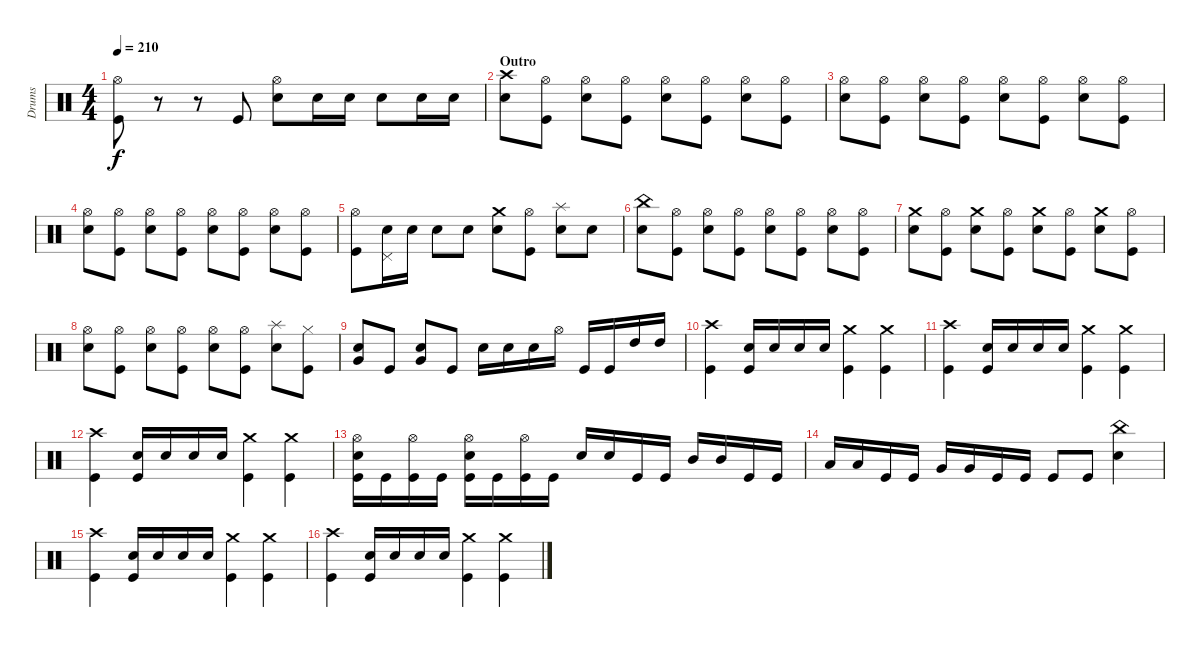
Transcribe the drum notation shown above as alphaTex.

\track ("Drums" "Drums") {instrument percussion}
\staff {score}
\articulation defaults
\ts (4 4)
\tempo 210
\clef neutral
\ks c
("Hi-Hat (open)" "Kick (hit)").8{dy f} r.8 r.8 "Kick (hit)".8 ("Hi-Hat (open)" "Electric Snare (hit)").8 "Electric Snare (hit)".16 "Electric Snare (hit)".16 "Electric Snare (hit)".8 "Electric Snare (hit)".16 "Electric Snare (hit)".16 |
\section ("" "Outro")
("Crash high (hit)" "Electric Snare (hit)").8 ("Hi-Hat (open)" "Kick (hit)").8 ("Hi-Hat (open)" "Electric Snare (hit)").8 ("Hi-Hat (open)" "Kick (hit)").8 ("Hi-Hat (open)" "Electric Snare (hit)").8 ("Hi-Hat (open)" "Kick (hit)").8 ("Hi-Hat (open)" "Electric Snare (hit)").8 ("Hi-Hat (open)" "Kick (hit)").8 |
("Hi-Hat (open)" "Electric Snare (hit)").8 ("Hi-Hat (open)" "Kick (hit)").8 ("Hi-Hat (open)" "Electric Snare (hit)").8 ("Hi-Hat (open)" "Kick (hit)").8 ("Hi-Hat (open)" "Electric Snare (hit)").8 ("Hi-Hat (open)" "Kick (hit)").8 ("Hi-Hat (open)" "Electric Snare (hit)").8 ("Hi-Hat (open)" "Kick (hit)").8 |
("Hi-Hat (open)" "Electric Snare (hit)").8 ("Hi-Hat (open)" "Kick (hit)").8 ("Hi-Hat (open)" "Electric Snare (hit)").8 ("Hi-Hat (open)" "Kick (hit)").8 ("Hi-Hat (open)" "Electric Snare (hit)").8 ("Hi-Hat (open)" "Kick (hit)").8 ("Hi-Hat (open)" "Electric Snare (hit)").8 ("Hi-Hat (open)" "Kick (hit)").8 |
("Hi-Hat (open)" "Kick (hit)").8 ("Pedal Hi-Hat (hit)" "Electric Snare (hit)").16 "Electric Snare (hit)".16 "Electric Snare (hit)".8 "Electric Snare (hit)".8 ("Crash medium (hit)" "Electric Snare (hit)").8 ("Hi-Hat (open)" "Kick (hit)").8 ("Splash (hit)" "Electric Snare (hit)").8 "Electric Snare (hit)".8 |
("China (hit)" "Electric Snare (hit)").8 ("Hi-Hat (open)" "Kick (hit)").8 ("Hi-Hat (open)" "Electric Snare (hit)").8 ("Hi-Hat (open)" "Kick (hit)").8 ("Hi-Hat (open)" "Electric Snare (hit)").8 ("Hi-Hat (open)" "Kick (hit)").8 ("Hi-Hat (open)" "Electric Snare (hit)").8 ("Hi-Hat (open)" "Kick (hit)").8 |
("Crash medium (hit)" "Electric Snare (hit)").8 ("Hi-Hat (open)" "Kick (hit)").8 ("Crash medium (hit)" "Electric Snare (hit)").8 ("Hi-Hat (open)" "Kick (hit)").8 ("Crash medium (hit)" "Electric Snare (hit)").8 ("Hi-Hat (open)" "Kick (hit)").8 ("Crash medium (hit)" "Electric Snare (hit)").8 ("Hi-Hat (open)" "Kick (hit)").8 |
("Hi-Hat (open)" "Electric Snare (hit)").8 ("Hi-Hat (open)" "Kick (hit)").8 ("Hi-Hat (open)" "Electric Snare (hit)").8 ("Hi-Hat (open)" "Kick (hit)").8 ("Hi-Hat (open)" "Electric Snare (hit)").8 ("Hi-Hat (open)" "Kick (hit)").8 ("Splash (hit)" "Electric Snare (hit)").8 ("Hi-Hat (closed)" "Kick (hit)").8 |
("Very Low Tom (hit)" "Electric Snare (hit)").8 "Kick (hit)".8 ("Very Low Tom (hit)" "Electric Snare (hit)").8 "Kick (hit)".8 "Electric Snare (hit)".16 "Electric Snare (hit)".16 "Electric Snare (hit)".16 "Hi-Hat (open)".16 "Kick (hit)".16 "Kick (hit)".16 "High Tom (hit)".16 "High Tom (hit)".16 |
("Crash high (hit)" "Kick (hit)").4 ("Electric Snare (hit)" "Kick (hit)").16 "Electric Snare (hit)".16 "Electric Snare (hit)".16 "Electric Snare (hit)".16 ("Crash medium (hit)" "Kick (hit)").4 ("Crash medium (hit)" "Kick (hit)").4 |
("Crash high (hit)" "Kick (hit)").4 ("Electric Snare (hit)" "Kick (hit)").16 "Electric Snare (hit)".16 "Electric Snare (hit)".16 "Electric Snare (hit)".16 ("Crash medium (hit)" "Kick (hit)").4 ("Crash medium (hit)" "Kick (hit)").4 |
("Crash high (hit)" "Kick (hit)").4 ("Electric Snare (hit)" "Kick (hit)").16 "Electric Snare (hit)".16 "Electric Snare (hit)".16 "Electric Snare (hit)".16 ("Crash medium (hit)" "Kick (hit)").4 ("Crash medium (hit)" "Kick (hit)").4 |
("Hi-Hat (open)" "Electric Snare (hit)" "Kick (hit)").16 "Kick (hit)".16 ("Hi-Hat (open)" "Kick (hit)").16 "Kick (hit)".16 ("Hi-Hat (open)" "Electric Snare (hit)" "Kick (hit)").16 "Kick (hit)".16 ("Hi-Hat (open)" "Kick (hit)").16 "Kick (hit)".16 "Electric Snare (hit)".16 "Electric Snare (hit)".16 "Kick (hit)".16 "Kick (hit)".16 "Mid Tom (hit)".16 "Mid Tom (hit)".16 "Kick (hit)".16 "Kick (hit)".16 |
"Low Tom (hit)".16 "Low Tom (hit)".16 "Kick (hit)".16 "Kick (hit)".16 "Very Low Tom (hit)".16 "Very Low Tom (hit)".16 "Kick (hit)".16 "Kick (hit)".16 "Kick (hit)".8 "Kick (hit)".8 ("China (hit)" "Electric Snare (hit)").4 |
("Crash high (hit)" "Kick (hit)").4 ("Electric Snare (hit)" "Kick (hit)").16 "Electric Snare (hit)".16 "Electric Snare (hit)".16 "Electric Snare (hit)".16 ("Crash medium (hit)" "Kick (hit)").4 ("Crash medium (hit)" "Kick (hit)").4 |
("Crash high (hit)" "Kick (hit)").4 ("Electric Snare (hit)" "Kick (hit)").16 "Electric Snare (hit)".16 "Electric Snare (hit)".16 "Electric Snare (hit)".16 ("Crash medium (hit)" "Kick (hit)").4 ("Crash medium (hit)" "Kick (hit)").4
